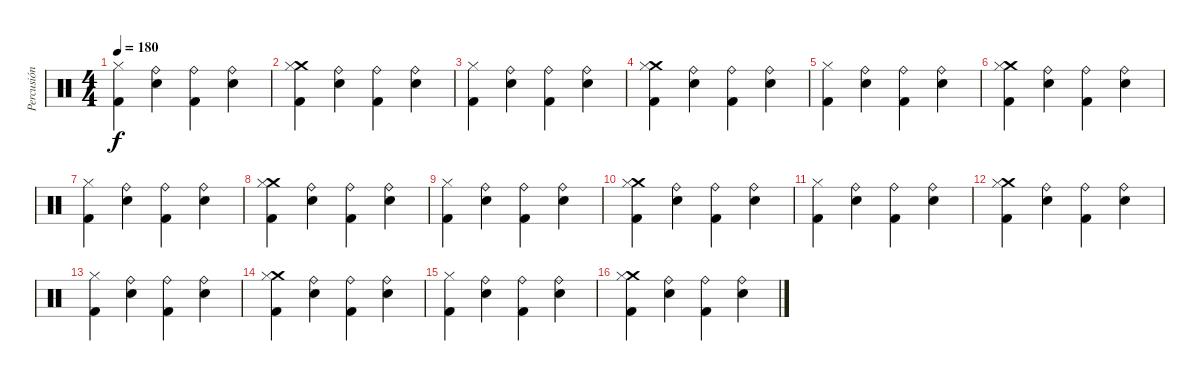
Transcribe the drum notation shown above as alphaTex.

\track ("Percusión" "Percusión") {instrument percussion}
\staff {score}
\articulation defaults
\ts (4 4)
\tempo 180
\clef neutral
\ks c
("Hi-Hat (closed)" "Kick (hit) 2").4{dy f} ("Ride (bell)" "Electric Snare (hit)").4 ("Ride (bell)" "Kick (hit) 2").4 ("Ride (bell)" "Electric Snare (hit)").4 |
("Crash medium (hit)" "Hi-Hat (closed)" "Kick (hit) 2").4 ("Ride (bell)" "Electric Snare (hit)").4 ("Ride (bell)" "Kick (hit) 2").4 ("Ride (bell)" "Electric Snare (hit)").4 |
("Hi-Hat (closed)" "Kick (hit) 2").4 ("Ride (bell)" "Electric Snare (hit)").4 ("Ride (bell)" "Kick (hit) 2").4 ("Ride (bell)" "Electric Snare (hit)").4 |
("Crash medium (hit)" "Hi-Hat (closed)" "Kick (hit) 2").4 ("Ride (bell)" "Electric Snare (hit)").4 ("Ride (bell)" "Kick (hit) 2").4 ("Ride (bell)" "Electric Snare (hit)").4 |
("Hi-Hat (closed)" "Kick (hit) 2").4 ("Ride (bell)" "Electric Snare (hit)").4 ("Ride (bell)" "Kick (hit) 2").4 ("Ride (bell)" "Electric Snare (hit)").4 |
("Crash medium (hit)" "Hi-Hat (closed)" "Kick (hit) 2").4 ("Ride (bell)" "Electric Snare (hit)").4 ("Ride (bell)" "Kick (hit) 2").4 ("Ride (bell)" "Electric Snare (hit)").4 |
("Hi-Hat (closed)" "Kick (hit) 2").4 ("Ride (bell)" "Electric Snare (hit)").4 ("Ride (bell)" "Kick (hit) 2").4 ("Ride (bell)" "Electric Snare (hit)").4 |
("Crash medium (hit)" "Hi-Hat (closed)" "Kick (hit) 2").4 ("Ride (bell)" "Electric Snare (hit)").4 ("Ride (bell)" "Kick (hit) 2").4 ("Ride (bell)" "Electric Snare (hit)").4 |
("Hi-Hat (closed)" "Kick (hit) 2").4 ("Ride (bell)" "Electric Snare (hit)").4 ("Ride (bell)" "Kick (hit) 2").4 ("Ride (bell)" "Electric Snare (hit)").4 |
("Crash medium (hit)" "Hi-Hat (closed)" "Kick (hit) 2").4 ("Ride (bell)" "Electric Snare (hit)").4 ("Ride (bell)" "Kick (hit) 2").4 ("Ride (bell)" "Electric Snare (hit)").4 |
("Hi-Hat (closed)" "Kick (hit) 2").4 ("Ride (bell)" "Electric Snare (hit)").4 ("Ride (bell)" "Kick (hit) 2").4 ("Ride (bell)" "Electric Snare (hit)").4 |
("Crash medium (hit)" "Hi-Hat (closed)" "Kick (hit) 2").4 ("Ride (bell)" "Electric Snare (hit)").4 ("Ride (bell)" "Kick (hit) 2").4 ("Ride (bell)" "Electric Snare (hit)").4 |
("Hi-Hat (closed)" "Kick (hit) 2").4 ("Ride (bell)" "Electric Snare (hit)").4 ("Ride (bell)" "Kick (hit) 2").4 ("Ride (bell)" "Electric Snare (hit)").4 |
("Crash medium (hit)" "Hi-Hat (closed)" "Kick (hit) 2").4 ("Ride (bell)" "Electric Snare (hit)").4 ("Ride (bell)" "Kick (hit) 2").4 ("Ride (bell)" "Electric Snare (hit)").4 |
("Hi-Hat (closed)" "Kick (hit) 2").4 ("Ride (bell)" "Electric Snare (hit)").4 ("Ride (bell)" "Kick (hit) 2").4 ("Ride (bell)" "Electric Snare (hit)").4 |
("Crash medium (hit)" "Hi-Hat (closed)" "Kick (hit) 2").4 ("Ride (bell)" "Electric Snare (hit)").4 ("Ride (bell)" "Kick (hit) 2").4 ("Ride (bell)" "Electric Snare (hit)").4
